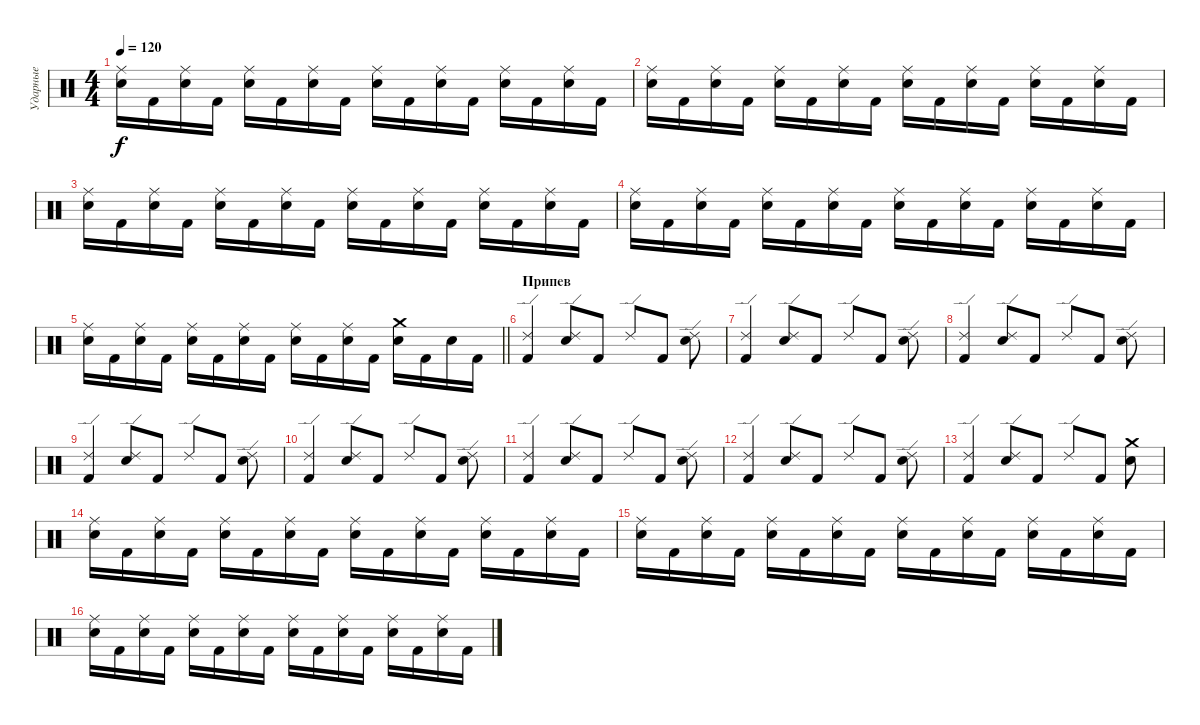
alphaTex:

\track ("Ударные" "Ударные") {instrument percussion}
\staff {score}
\articulation defaults
\ts (4 4)
\tempo 120
\clef neutral
\ks c
("Electric Snare (hit)" "Ride (middle)").16{dy f} "Kick (hit) 2".16 ("Electric Snare (hit)" "Ride (middle)").16 "Kick (hit) 2".16 ("Electric Snare (hit)" "Ride (middle)").16 "Kick (hit) 2".16 ("Electric Snare (hit)" "Ride (middle)").16 "Kick (hit) 2".16 ("Electric Snare (hit)" "Ride (middle)").16 "Kick (hit) 2".16 ("Electric Snare (hit)" "Ride (middle)").16 "Kick (hit) 2".16 ("Electric Snare (hit)" "Ride (middle)").16 "Kick (hit) 2".16 ("Electric Snare (hit)" "Ride (middle)").16 "Kick (hit) 2".16 |
("Electric Snare (hit)" "Ride (middle)").16 "Kick (hit) 2".16 ("Electric Snare (hit)" "Ride (middle)").16 "Kick (hit) 2".16 ("Electric Snare (hit)" "Ride (middle)").16 "Kick (hit) 2".16 ("Electric Snare (hit)" "Ride (middle)").16 "Kick (hit) 2".16 ("Electric Snare (hit)" "Ride (middle)").16 "Kick (hit) 2".16 ("Electric Snare (hit)" "Ride (middle)").16 "Kick (hit) 2".16 ("Electric Snare (hit)" "Ride (middle)").16 "Kick (hit) 2".16 ("Electric Snare (hit)" "Ride (middle)").16 "Kick (hit) 2".16 |
("Electric Snare (hit)" "Ride (middle)").16 "Kick (hit) 2".16 ("Electric Snare (hit)" "Ride (middle)").16 "Kick (hit) 2".16 ("Electric Snare (hit)" "Ride (middle)").16 "Kick (hit) 2".16 ("Electric Snare (hit)" "Ride (middle)").16 "Kick (hit) 2".16 ("Electric Snare (hit)" "Ride (middle)").16 "Kick (hit) 2".16 ("Electric Snare (hit)" "Ride (middle)").16 "Kick (hit) 2".16 ("Electric Snare (hit)" "Ride (middle)").16 "Kick (hit) 2".16 ("Electric Snare (hit)" "Ride (middle)").16 "Kick (hit) 2".16 |
("Electric Snare (hit)" "Ride (middle)").16 "Kick (hit) 2".16 ("Electric Snare (hit)" "Ride (middle)").16 "Kick (hit) 2".16 ("Electric Snare (hit)" "Ride (middle)").16 "Kick (hit) 2".16 ("Electric Snare (hit)" "Ride (middle)").16 "Kick (hit) 2".16 ("Electric Snare (hit)" "Ride (middle)").16 "Kick (hit) 2".16 ("Electric Snare (hit)" "Ride (middle)").16 "Kick (hit) 2".16 ("Electric Snare (hit)" "Ride (middle)").16 "Kick (hit) 2".16 ("Electric Snare (hit)" "Ride (middle)").16 "Kick (hit) 2".16 |
\barLineRight lightlight
("Electric Snare (hit)" "Ride (middle)").16 "Kick (hit) 2".16 ("Electric Snare (hit)" "Ride (middle)").16 "Kick (hit) 2".16 ("Electric Snare (hit)" "Ride (middle)").16 "Kick (hit) 2".16 ("Electric Snare (hit)" "Ride (middle)").16 "Kick (hit) 2".16 ("Electric Snare (hit)" "Ride (middle)").16 "Kick (hit) 2".16 ("Electric Snare (hit)" "Ride (middle)").16 "Kick (hit) 2".16 ("Electric Snare (hit)" "Crash medium (hit)").16 "Kick (hit) 2".16 "Electric Snare (hit)".16 "Kick (hit) 2".16 |
\section ("" "Припев")
("Kick (hit) 2" "Ride (edge) 2").4 ("Electric Snare (hit)" "Ride (edge) 2").8 "Kick (hit) 2".8 "Ride (edge) 2".8 "Kick (hit) 2".8 ("Electric Snare (hit)" "Ride (edge) 2").8 |
("Kick (hit) 2" "Ride (edge) 2").4 ("Electric Snare (hit)" "Ride (edge) 2").8 "Kick (hit) 2".8 "Ride (edge) 2".8 "Kick (hit) 2".8 ("Electric Snare (hit)" "Ride (edge) 2").8 |
("Kick (hit) 2" "Ride (edge) 2").4 ("Electric Snare (hit)" "Ride (edge) 2").8 "Kick (hit) 2".8 "Ride (edge) 2".8 "Kick (hit) 2".8 ("Electric Snare (hit)" "Ride (edge) 2").8 |
("Kick (hit) 2" "Ride (edge) 2").4 ("Electric Snare (hit)" "Ride (edge) 2").8 "Kick (hit) 2".8 "Ride (edge) 2".8 "Kick (hit) 2".8 ("Electric Snare (hit)" "Ride (edge) 2").8 |
("Kick (hit) 2" "Ride (edge) 2").4 ("Electric Snare (hit)" "Ride (edge) 2").8 "Kick (hit) 2".8 "Ride (edge) 2".8 "Kick (hit) 2".8 ("Electric Snare (hit)" "Ride (edge) 2").8 |
("Kick (hit) 2" "Ride (edge) 2").4 ("Electric Snare (hit)" "Ride (edge) 2").8 "Kick (hit) 2".8 "Ride (edge) 2".8 "Kick (hit) 2".8 ("Electric Snare (hit)" "Ride (edge) 2").8 |
("Kick (hit) 2" "Ride (edge) 2").4 ("Electric Snare (hit)" "Ride (edge) 2").8 "Kick (hit) 2".8 "Ride (edge) 2".8 "Kick (hit) 2".8 ("Electric Snare (hit)" "Ride (edge) 2").8 |
("Kick (hit) 2" "Ride (edge) 2").4 ("Electric Snare (hit)" "Ride (edge) 2").8 "Kick (hit) 2".8 "Ride (edge) 2".8 "Kick (hit) 2".8 ("Electric Snare (hit)" "Crash medium (hit)").8 |
("Electric Snare (hit)" "Ride (middle)").16 "Kick (hit) 2".16 ("Electric Snare (hit)" "Ride (middle)").16 "Kick (hit) 2".16 ("Electric Snare (hit)" "Ride (middle)").16 "Kick (hit) 2".16 ("Electric Snare (hit)" "Ride (middle)").16 "Kick (hit) 2".16 ("Electric Snare (hit)" "Ride (middle)").16 "Kick (hit) 2".16 ("Electric Snare (hit)" "Ride (middle)").16 "Kick (hit) 2".16 ("Electric Snare (hit)" "Ride (middle)").16 "Kick (hit) 2".16 ("Electric Snare (hit)" "Ride (middle)").16 "Kick (hit) 2".16 |
("Electric Snare (hit)" "Ride (middle)").16 "Kick (hit) 2".16 ("Electric Snare (hit)" "Ride (middle)").16 "Kick (hit) 2".16 ("Electric Snare (hit)" "Ride (middle)").16 "Kick (hit) 2".16 ("Electric Snare (hit)" "Ride (middle)").16 "Kick (hit) 2".16 ("Electric Snare (hit)" "Ride (middle)").16 "Kick (hit) 2".16 ("Electric Snare (hit)" "Ride (middle)").16 "Kick (hit) 2".16 ("Electric Snare (hit)" "Ride (middle)").16 "Kick (hit) 2".16 ("Electric Snare (hit)" "Ride (middle)").16 "Kick (hit) 2".16 |
("Electric Snare (hit)" "Ride (middle)").16 "Kick (hit) 2".16 ("Electric Snare (hit)" "Ride (middle)").16 "Kick (hit) 2".16 ("Electric Snare (hit)" "Ride (middle)").16 "Kick (hit) 2".16 ("Electric Snare (hit)" "Ride (middle)").16 "Kick (hit) 2".16 ("Electric Snare (hit)" "Ride (middle)").16 "Kick (hit) 2".16 ("Electric Snare (hit)" "Ride (middle)").16 "Kick (hit) 2".16 ("Electric Snare (hit)" "Ride (middle)").16 "Kick (hit) 2".16 ("Electric Snare (hit)" "Ride (middle)").16 "Kick (hit) 2".16
